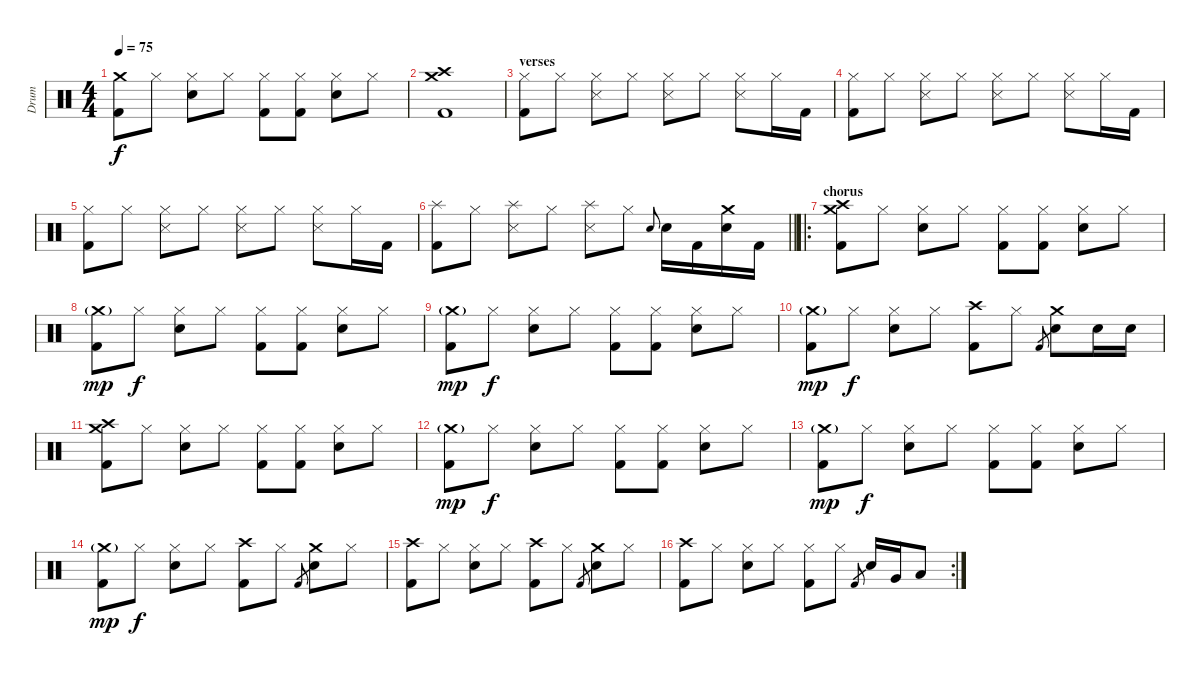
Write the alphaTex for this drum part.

\track ("Drum" "Drum") {instrument percussion}
\staff {score}
\articulation defaults
\ts (4 4)
\tempo 75
\clef neutral
\ks c
("Kick (hit) 2" "Crash medium (hit)").8{dy f} "Hi-Hat (closed)".8 ("Electric Snare (hit)" "Hi-Hat (closed)").8 "Hi-Hat (closed)".8 ("Kick (hit) 2" "Hi-Hat (closed)").8 ("Kick (hit) 2" "Hi-Hat (closed)").8 ("Electric Snare (hit)" "Hi-Hat (closed)").8 "Hi-Hat (closed)".8 |
("Kick (hit) 2" "Crash high (hit)" "Crash medium (hit)").1 |
\section ("" "verses")
("Kick (hit) 2" "Hi-Hat (closed)").8 "Hi-Hat (closed)".8 ("Snare (side stick) 3" "Hi-Hat (closed)").8 "Hi-Hat (closed)".8 ("Snare (side stick) 3" "Hi-Hat (closed)").8 "Hi-Hat (closed)".8 ("Snare (side stick) 3" "Hi-Hat (closed)").8 "Hi-Hat (closed)".16 "Kick (hit) 2".16 |
("Kick (hit) 2" "Hi-Hat (closed)").8 "Hi-Hat (closed)".8 ("Snare (side stick) 3" "Hi-Hat (closed)").8 "Hi-Hat (closed)".8 ("Snare (side stick) 3" "Hi-Hat (closed)").8 "Hi-Hat (closed)".8 ("Snare (side stick) 3" "Hi-Hat (closed)").8 "Hi-Hat (closed)".16 "Kick (hit) 2".16 |
("Kick (hit) 2" "Hi-Hat (closed)").8 "Hi-Hat (closed)".8 ("Snare (side stick) 3" "Hi-Hat (closed)").8 "Hi-Hat (closed)".8 ("Snare (side stick) 3" "Hi-Hat (closed)").8 "Hi-Hat (closed)".8 ("Snare (side stick) 3" "Hi-Hat (closed)").8 "Hi-Hat (closed)".16 "Kick (hit) 2".16 |
\barLineRight lightlight
("Kick (hit) 2" "Splash (hit)").8 "Hi-Hat (closed)".8 ("Snare (side stick) 3" "Splash (hit)").8 "Hi-Hat (closed)".8 ("Snare (side stick) 3" "Splash (hit)").8 "Hi-Hat (closed)".8 "Electric Snare (hit)".8{gr onbeat} "Electric Snare (hit)".16 "Kick (hit) 2".16 ("Electric Snare (hit)" "Crash medium (hit)").16 "Kick (hit) 2".16 |
\ro
\section ("" "chorus")
("Kick (hit) 2" "Crash high (hit)" "Crash medium (hit)").8 "Hi-Hat (closed)".8 ("Electric Snare (hit)" "Hi-Hat (closed)").8 "Hi-Hat (closed)".8 ("Kick (hit) 2" "Hi-Hat (closed)").8 ("Kick (hit) 2" "Hi-Hat (closed)").8 ("Electric Snare (hit)" "Hi-Hat (closed)").8 "Hi-Hat (closed)".8 |
("Kick (hit) 2" "Crash medium (hit)"{g}).8{dy mp} "Hi-Hat (closed)".8{dy f} ("Electric Snare (hit)" "Hi-Hat (closed)").8 "Hi-Hat (closed)".8 ("Kick (hit) 2" "Hi-Hat (closed)").8 ("Kick (hit) 2" "Hi-Hat (closed)").8 ("Electric Snare (hit)" "Hi-Hat (closed)").8 "Hi-Hat (closed)".8 |
("Kick (hit) 2" "Crash medium (hit)"{g}).8{dy mp} "Hi-Hat (closed)".8{dy f} ("Electric Snare (hit)" "Hi-Hat (closed)").8 "Hi-Hat (closed)".8 ("Kick (hit) 2" "Hi-Hat (closed)").8 ("Kick (hit) 2" "Hi-Hat (closed)").8 ("Electric Snare (hit)" "Hi-Hat (closed)").8 "Hi-Hat (closed)".8 |
("Kick (hit) 2" "Crash medium (hit)"{g}).8{dy mp} "Hi-Hat (closed)".8{dy f} ("Electric Snare (hit)" "Hi-Hat (closed)").8 "Hi-Hat (closed)".8 ("Kick (hit) 2" "Crash high (hit)").8 "Hi-Hat (closed)".8 "Kick (hit) 2".8{gr} ("Electric Snare (hit)" "Crash medium (hit)").8 "Electric Snare (hit)".16 "Electric Snare (hit)".16 |
("Kick (hit) 2" "Crash high (hit)" "Crash medium (hit)").8 "Hi-Hat (closed)".8 ("Electric Snare (hit)" "Hi-Hat (closed)").8 "Hi-Hat (closed)".8 ("Kick (hit) 2" "Hi-Hat (closed)").8 ("Kick (hit) 2" "Hi-Hat (closed)").8 ("Electric Snare (hit)" "Hi-Hat (closed)").8 "Hi-Hat (closed)".8 |
("Kick (hit) 2" "Crash medium (hit)"{g}).8{dy mp} "Hi-Hat (closed)".8{dy f} ("Electric Snare (hit)" "Hi-Hat (closed)").8 "Hi-Hat (closed)".8 ("Kick (hit) 2" "Hi-Hat (closed)").8 ("Kick (hit) 2" "Hi-Hat (closed)").8 ("Electric Snare (hit)" "Hi-Hat (closed)").8 "Hi-Hat (closed)".8 |
("Kick (hit) 2" "Crash medium (hit)"{g}).8{dy mp} "Hi-Hat (closed)".8{dy f} ("Electric Snare (hit)" "Hi-Hat (closed)").8 "Hi-Hat (closed)".8 ("Kick (hit) 2" "Hi-Hat (closed)").8 ("Kick (hit) 2" "Hi-Hat (closed)").8 ("Electric Snare (hit)" "Hi-Hat (closed)").8 "Hi-Hat (closed)".8 |
("Kick (hit) 2" "Crash medium (hit)"{g}).8{dy mp} "Hi-Hat (closed)".8{dy f} ("Electric Snare (hit)" "Hi-Hat (closed)").8 "Hi-Hat (closed)".8 ("Kick (hit) 2" "Crash high (hit)").8 "Hi-Hat (closed)".8 "Kick (hit) 2".8{gr} ("Electric Snare (hit)" "Crash medium (hit)").8 "Hi-Hat (closed)".8 |
("Kick (hit) 2" "Crash high (hit)").8 "Hi-Hat (closed)".8 ("Electric Snare (hit)" "Hi-Hat (closed)").8 "Hi-Hat (closed)".8 ("Kick (hit) 2" "Crash high (hit)").8 "Hi-Hat (closed)".8 "Kick (hit) 2".8{gr} ("Electric Snare (hit)" "Crash medium (hit)").8 "Hi-Hat (closed)".8 |
\rc 2
("Kick (hit) 2" "Crash high (hit)").8 "Hi-Hat (closed)".8 ("Electric Snare (hit)" "Hi-Hat (closed)").8 "Hi-Hat (closed)".8 ("Kick (hit) 2" "Hi-Hat (closed)").8 "Hi-Hat (closed)".8 "Kick (hit) 2".8{gr} "Electric Snare (hit)".16 "Very Low Tom (hit)".16 "Low Floor Tom (hit)".8
